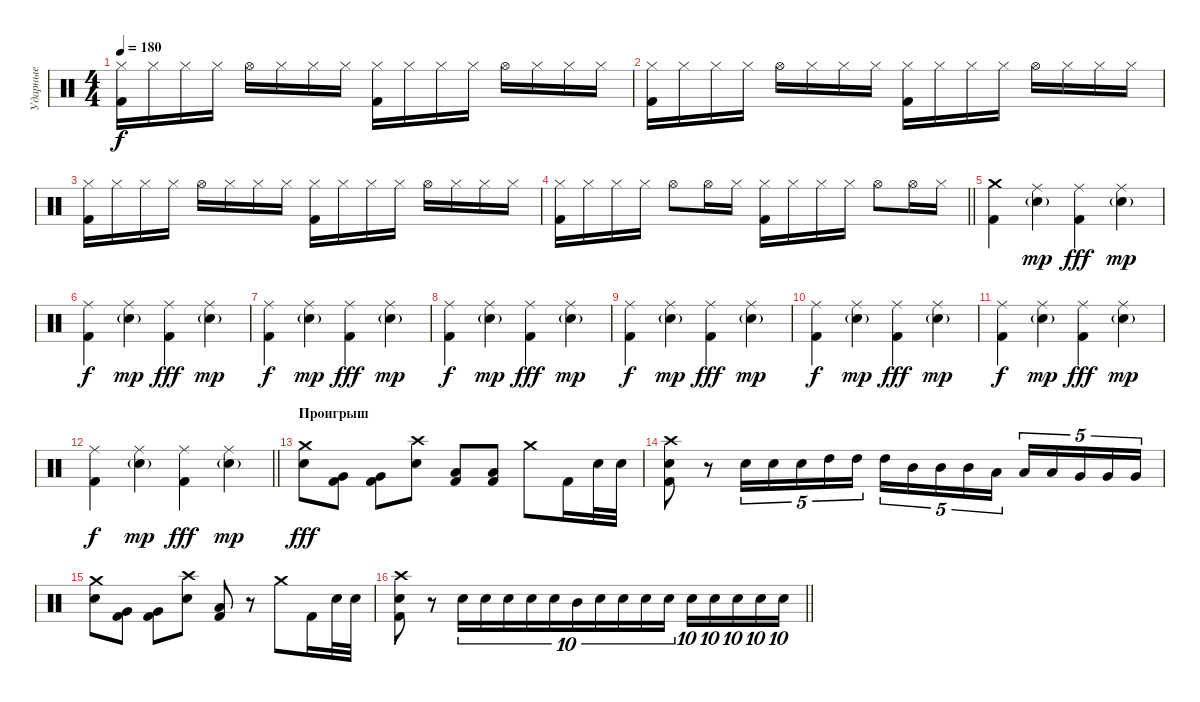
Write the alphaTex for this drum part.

\track ("Ударные" "Ударные") {instrument percussion}
\staff {score}
\articulation defaults
\ts (4 4)
\tempo 180
\clef neutral
\ks c
("Hi-Hat (closed)" "Kick (hit) 2").16{dy f} "Hi-Hat (closed)".16 "Hi-Hat (closed)".16 "Hi-Hat (closed)".16 "Hi-Hat (open)".16 "Hi-Hat (closed)".16 "Hi-Hat (closed)".16 "Hi-Hat (closed)".16 ("Hi-Hat (closed)" "Kick (hit) 2").16 "Hi-Hat (closed)".16 "Hi-Hat (closed)".16 "Hi-Hat (closed)".16 "Hi-Hat (open)".16 "Hi-Hat (closed)".16 "Hi-Hat (closed)".16 "Hi-Hat (closed)".16 |
("Hi-Hat (closed)" "Kick (hit) 2").16 "Hi-Hat (closed)".16 "Hi-Hat (closed)".16 "Hi-Hat (closed)".16 "Hi-Hat (open)".16 "Hi-Hat (closed)".16 "Hi-Hat (closed)".16 "Hi-Hat (closed)".16 ("Hi-Hat (closed)" "Kick (hit) 2").16 "Hi-Hat (closed)".16 "Hi-Hat (closed)".16 "Hi-Hat (closed)".16 "Hi-Hat (open)".16 "Hi-Hat (closed)".16 "Hi-Hat (closed)".16 "Hi-Hat (closed)".16 |
("Hi-Hat (closed)" "Kick (hit) 2").16 "Hi-Hat (closed)".16 "Hi-Hat (closed)".16 "Hi-Hat (closed)".16 "Hi-Hat (open)".16 "Hi-Hat (closed)".16 "Hi-Hat (closed)".16 "Hi-Hat (closed)".16 ("Hi-Hat (closed)" "Kick (hit) 2").16 "Hi-Hat (closed)".16 "Hi-Hat (closed)".16 "Hi-Hat (closed)".16 "Hi-Hat (open)".16 "Hi-Hat (closed)".16 "Hi-Hat (closed)".16 "Hi-Hat (closed)".16 |
\barLineRight lightlight
("Hi-Hat (closed)" "Kick (hit) 2").16 "Hi-Hat (closed)".16 "Hi-Hat (closed)".16 "Hi-Hat (closed)".16 "Hi-Hat (open)".8 "Hi-Hat (open)".16 "Hi-Hat (closed)".16 ("Hi-Hat (closed)" "Kick (hit) 2").16 "Hi-Hat (closed)".16 "Hi-Hat (closed)".16 "Hi-Hat (closed)".16 "Hi-Hat (open)".8 "Hi-Hat (open)".16 "Hi-Hat (closed)".16 |
\section ("" "")
("Crash medium (hit)" "Kick (hit) 2").4 ("Ride (middle)" "Snare (hit) 2"{g}).4{dy mp} ("Ride (middle)" "Kick (hit) 2").4{dy fff} ("Ride (middle)" "Snare (hit) 2"{g}).4{dy mp} |
("Ride (middle)" "Kick (hit) 2").4{dy f} ("Ride (middle)" "Snare (hit) 2"{g}).4{dy mp} ("Ride (middle)" "Kick (hit) 2").4{dy fff} ("Ride (middle)" "Snare (hit) 2"{g}).4{dy mp} |
("Ride (middle)" "Kick (hit) 2").4{dy f} ("Ride (middle)" "Snare (hit) 2"{g}).4{dy mp} ("Ride (middle)" "Kick (hit) 2").4{dy fff} ("Ride (middle)" "Snare (hit) 2"{g}).4{dy mp} |
("Ride (middle)" "Kick (hit) 2").4{dy f} ("Ride (middle)" "Snare (hit) 2"{g}).4{dy mp} ("Ride (middle)" "Kick (hit) 2").4{dy fff} ("Ride (middle)" "Snare (hit) 2"{g}).4{dy mp} |
("Ride (middle)" "Kick (hit) 2").4{dy f} ("Ride (middle)" "Snare (hit) 2"{g}).4{dy mp} ("Ride (middle)" "Kick (hit) 2").4{dy fff} ("Ride (middle)" "Snare (hit) 2"{g}).4{dy mp} |
("Ride (middle)" "Kick (hit) 2").4{dy f} ("Ride (middle)" "Snare (hit) 2"{g}).4{dy mp} ("Ride (middle)" "Kick (hit) 2").4{dy fff} ("Ride (middle)" "Snare (hit) 2"{g}).4{dy mp} |
("Ride (middle)" "Kick (hit) 2").4{dy f} ("Ride (middle)" "Snare (hit) 2"{g}).4{dy mp} ("Ride (middle)" "Kick (hit) 2").4{dy fff} ("Ride (middle)" "Snare (hit) 2"{g}).4{dy mp} |
\barLineRight lightlight
("Ride (middle)" "Kick (hit) 2").4{dy f} ("Ride (middle)" "Snare (hit) 2"{g}).4{dy mp} ("Ride (middle)" "Kick (hit) 2").4{dy fff} ("Ride (middle)" "Snare (hit) 2"{g}).4{dy mp} |
\section ("" "Проигрыш")
("Crash medium (hit)" "Snare (hit) 2").8{dy fff} ("Very Low Tom (hit)" "Kick (hit) 2").8 ("Very Low Tom (hit)" "Kick (hit) 2").8 ("Crash high (hit)" "Snare (hit) 2").8 ("Low Floor Tom (hit)" "Kick (hit) 2").8 ("Low Floor Tom (hit)" "Kick (hit) 2").8 "Crash medium (hit)".8 "Kick (hit) 2".16 "Snare (hit) 2".32 "Snare (hit) 2".32 |
("Crash high (hit)" "Snare (hit) 2" "Kick (hit) 2").8 r.8 "Snare (hit) 2".16{tu (5 4)} "Snare (hit) 2".16{tu (5 4)} "Snare (hit) 2".16{tu (5 4)} "High Tom (hit)".16{tu (5 4)} "High Tom (hit)".16{tu (5 4)} "High Tom (hit)".16{tu (5 4)} "Mid Tom (hit)".16{tu (5 4)} "Mid Tom (hit)".16{tu (5 4)} "Mid Tom (hit)".16{tu (5 4)} "Low Tom (hit)".16{tu (5 4)} "Low Tom (hit)".16{tu (5 4)} "Low Tom (hit)".16{tu (5 4)} "Very Low Tom (hit)".16{tu (5 4)} "Very Low Tom (hit)".16{tu (5 4)} "Very Low Tom (hit)".16{tu (5 4)} |
("Crash medium (hit)" "Snare (hit) 2").8 ("Very Low Tom (hit)" "Kick (hit) 2").8 ("Very Low Tom (hit)" "Kick (hit) 2").8 ("Crash high (hit)" "Snare (hit) 2").8 ("Low Floor Tom (hit)" "Kick (hit) 2").8 r.8 "Crash medium (hit)".8 "Kick (hit) 2".16 "Snare (hit) 2".32 "Snare (hit) 2".32 |
\barLineRight lightlight
("Crash high (hit)" "Snare (hit) 2" "Kick (hit) 2").8 r.8 "Snare (hit) 2".16{tu (10 8)} "Snare (hit) 2".16{tu (10 8)} "Snare (hit) 2".16{tu (10 8)} "Snare (hit) 2".16{tu (10 8)} "Snare (hit) 2".16{tu (10 8)} "Mid Tom (hit)".16{tu (10 8)} "Snare (hit) 2".16{tu (10 8)} "Snare (hit) 2".16{tu (10 8)} "Snare (hit) 2".16{tu (10 8)} "Snare (hit) 2".16{tu (10 8)} "Snare (hit) 2".16{tu (10 8)} "Snare (hit) 2".16{tu (10 8)} "Snare (hit) 2".16{tu (10 8)} "Snare (hit) 2".16{tu (10 8)} "Snare (hit) 2".16{tu (10 8)}
